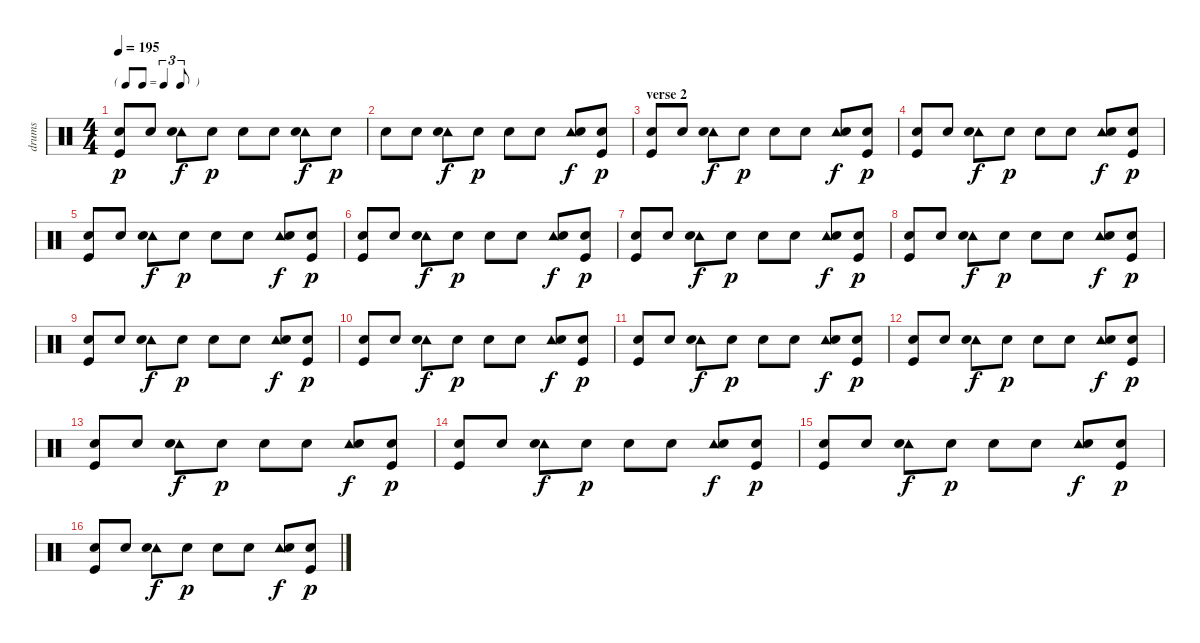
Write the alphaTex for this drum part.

\track ("drums" "drums") {instrument percussion}
\staff {score}
\articulation defaults
\ts (4 4)
\tf triplet8th
\tempo 195
\clef neutral
\ks c
("Snare (hit) 2" "Kick (hit)").8{dy p} "Snare (hit) 2".8 ("Tambourine (hit)" "Snare (hit) 2").8{dy f} "Snare (hit) 2".8{dy p} "Snare (hit) 2".8 "Snare (hit) 2".8 ("Tambourine (hit)" "Snare (hit) 2").8{dy f} "Snare (hit) 2".8{dy p} |
"Snare (hit) 2".8 "Snare (hit) 2".8 ("Tambourine (hit)" "Snare (hit) 2").8{dy f} "Snare (hit) 2".8{dy p} "Snare (hit) 2".8 "Snare (hit) 2".8 ("Tambourine (hit)" "Snare (hit) 2").8{dy f} ("Snare (hit) 2" "Kick (hit)").8{dy p} |
\section ("" "verse 2")
("Snare (hit) 2" "Kick (hit)").8 "Snare (hit) 2".8 ("Tambourine (hit)" "Snare (hit) 2").8{dy f} "Snare (hit) 2".8{dy p} "Snare (hit) 2".8 "Snare (hit) 2".8 ("Tambourine (hit)" "Snare (hit) 2").8{dy f} ("Snare (hit) 2" "Kick (hit)").8{dy p} |
("Snare (hit) 2" "Kick (hit)").8 "Snare (hit) 2".8 ("Tambourine (hit)" "Snare (hit) 2").8{dy f} "Snare (hit) 2".8{dy p} "Snare (hit) 2".8 "Snare (hit) 2".8 ("Tambourine (hit)" "Snare (hit) 2").8{dy f} ("Snare (hit) 2" "Kick (hit)").8{dy p} |
("Snare (hit) 2" "Kick (hit)").8 "Snare (hit) 2".8 ("Tambourine (hit)" "Snare (hit) 2").8{dy f} "Snare (hit) 2".8{dy p} "Snare (hit) 2".8 "Snare (hit) 2".8 ("Tambourine (hit)" "Snare (hit) 2").8{dy f} ("Snare (hit) 2" "Kick (hit)").8{dy p} |
("Snare (hit) 2" "Kick (hit)").8 "Snare (hit) 2".8 ("Tambourine (hit)" "Snare (hit) 2").8{dy f} "Snare (hit) 2".8{dy p} "Snare (hit) 2".8 "Snare (hit) 2".8 ("Tambourine (hit)" "Snare (hit) 2").8{dy f} ("Snare (hit) 2" "Kick (hit)").8{dy p} |
("Snare (hit) 2" "Kick (hit)").8 "Snare (hit) 2".8 ("Tambourine (hit)" "Snare (hit) 2").8{dy f} "Snare (hit) 2".8{dy p} "Snare (hit) 2".8 "Snare (hit) 2".8 ("Tambourine (hit)" "Snare (hit) 2").8{dy f} ("Snare (hit) 2" "Kick (hit)").8{dy p} |
("Snare (hit) 2" "Kick (hit)").8 "Snare (hit) 2".8 ("Tambourine (hit)" "Snare (hit) 2").8{dy f} "Snare (hit) 2".8{dy p} "Snare (hit) 2".8 "Snare (hit) 2".8 ("Tambourine (hit)" "Snare (hit) 2").8{dy f} ("Snare (hit) 2" "Kick (hit)").8{dy p} |
("Snare (hit) 2" "Kick (hit)").8 "Snare (hit) 2".8 ("Tambourine (hit)" "Snare (hit) 2").8{dy f} "Snare (hit) 2".8{dy p} "Snare (hit) 2".8 "Snare (hit) 2".8 ("Tambourine (hit)" "Snare (hit) 2").8{dy f} ("Snare (hit) 2" "Kick (hit)").8{dy p} |
("Snare (hit) 2" "Kick (hit)").8 "Snare (hit) 2".8 ("Tambourine (hit)" "Snare (hit) 2").8{dy f} "Snare (hit) 2".8{dy p} "Snare (hit) 2".8 "Snare (hit) 2".8 ("Tambourine (hit)" "Snare (hit) 2").8{dy f} ("Snare (hit) 2" "Kick (hit)").8{dy p} |
("Snare (hit) 2" "Kick (hit)").8 "Snare (hit) 2".8 ("Tambourine (hit)" "Snare (hit) 2").8{dy f} "Snare (hit) 2".8{dy p} "Snare (hit) 2".8 "Snare (hit) 2".8 ("Tambourine (hit)" "Snare (hit) 2").8{dy f} ("Snare (hit) 2" "Kick (hit)").8{dy p} |
("Snare (hit) 2" "Kick (hit)").8 "Snare (hit) 2".8 ("Tambourine (hit)" "Snare (hit) 2").8{dy f} "Snare (hit) 2".8{dy p} "Snare (hit) 2".8 "Snare (hit) 2".8 ("Tambourine (hit)" "Snare (hit) 2").8{dy f} ("Snare (hit) 2" "Kick (hit)").8{dy p} |
("Snare (hit) 2" "Kick (hit)").8 "Snare (hit) 2".8 ("Tambourine (hit)" "Snare (hit) 2").8{dy f} "Snare (hit) 2".8{dy p} "Snare (hit) 2".8 "Snare (hit) 2".8 ("Tambourine (hit)" "Snare (hit) 2").8{dy f} ("Snare (hit) 2" "Kick (hit)").8{dy p} |
("Snare (hit) 2" "Kick (hit)").8 "Snare (hit) 2".8 ("Tambourine (hit)" "Snare (hit) 2").8{dy f} "Snare (hit) 2".8{dy p} "Snare (hit) 2".8 "Snare (hit) 2".8 ("Tambourine (hit)" "Snare (hit) 2").8{dy f} ("Snare (hit) 2" "Kick (hit)").8{dy p} |
("Snare (hit) 2" "Kick (hit)").8 "Snare (hit) 2".8 ("Tambourine (hit)" "Snare (hit) 2").8{dy f} "Snare (hit) 2".8{dy p} "Snare (hit) 2".8 "Snare (hit) 2".8 ("Tambourine (hit)" "Snare (hit) 2").8{dy f} ("Snare (hit) 2" "Kick (hit)").8{dy p} |
("Snare (hit) 2" "Kick (hit)").8 "Snare (hit) 2".8 ("Tambourine (hit)" "Snare (hit) 2").8{dy f} "Snare (hit) 2".8{dy p} "Snare (hit) 2".8 "Snare (hit) 2".8 ("Tambourine (hit)" "Snare (hit) 2").8{dy f} ("Snare (hit) 2" "Kick (hit)").8{dy p}
